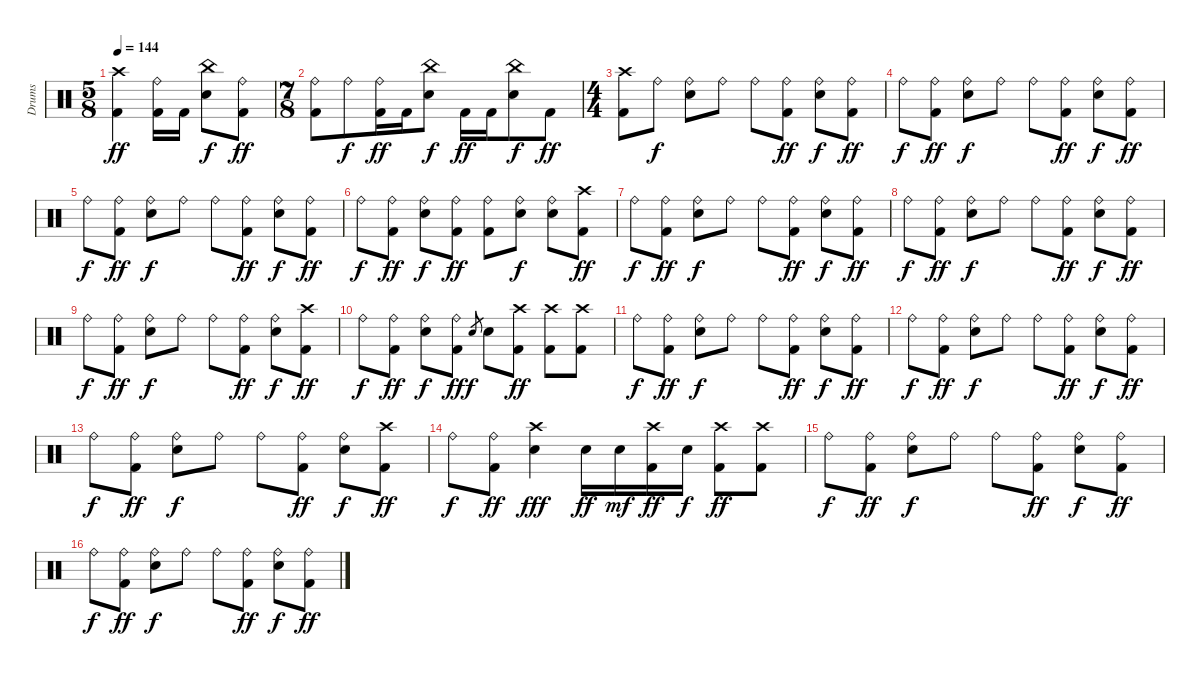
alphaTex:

\track ("Drums" "Drums") {instrument percussion}
\staff {score}
\articulation defaults
\ts (5 8)
\tempo 144
\clef neutral
\ks c
("Crash high (hit)" "Kick (hit) 2").4{dy ff} ("Ride (bell)" "Kick (hit) 2").16 "Kick (hit) 2".16 ("China (hit)" "Snare (hit) 2").8{dy f} ("Ride (bell)" "Kick (hit) 2").8{dy ff} |
\ts (7 8)
("Ride (bell)" "Kick (hit) 2").8 "Ride (bell)".8{dy f} ("Ride (bell)" "Kick (hit) 2").16{dy ff} "Kick (hit) 2".16 ("China (hit)" "Snare (hit) 2").8{dy f} "Kick (hit) 2".16{dy ff} "Kick (hit) 2".16 ("China (hit)" "Snare (hit) 2").8{dy f} "Kick (hit) 2".8{dy ff} |
\ts (4 4)
("Crash high (hit)" "Kick (hit) 2").8 "Ride (bell)".8{dy f} ("Ride (bell)" "Snare (hit) 2").8 "Ride (bell)".8 "Ride (bell)".8 ("Ride (bell)" "Kick (hit) 2").8{dy ff} ("Ride (bell)" "Snare (hit) 2").8{dy f} ("Ride (bell)" "Kick (hit) 2").8{dy ff} |
"Ride (bell)".8{dy f} ("Ride (bell)" "Kick (hit) 2").8{dy ff} ("Ride (bell)" "Snare (hit) 2").8{dy f} "Ride (bell)".8 "Ride (bell)".8 ("Ride (bell)" "Kick (hit) 2").8{dy ff} ("Ride (bell)" "Snare (hit) 2").8{dy f} ("Ride (bell)" "Kick (hit) 2").8{dy ff} |
"Ride (bell)".8{dy f} ("Ride (bell)" "Kick (hit) 2").8{dy ff} ("Ride (bell)" "Snare (hit) 2").8{dy f} "Ride (bell)".8 "Ride (bell)".8 ("Ride (bell)" "Kick (hit) 2").8{dy ff} ("Ride (bell)" "Snare (hit) 2").8{dy f} ("Ride (bell)" "Kick (hit) 2").8{dy ff} |
"Ride (bell)".8{dy f} ("Ride (bell)" "Kick (hit) 2").8{dy ff} ("Ride (bell)" "Snare (hit) 2").8{dy f} ("Ride (bell)" "Kick (hit) 2").8{dy ff} ("Ride (bell)" "Kick (hit) 2").8 ("Ride (bell)" "Snare (hit) 2").8{dy f} ("Ride (bell)" "Snare (hit) 2").8 ("Crash high (hit)" "Kick (hit) 2").8{dy ff} |
"Ride (bell)".8{dy f} ("Ride (bell)" "Kick (hit) 2").8{dy ff} ("Ride (bell)" "Snare (hit) 2").8{dy f} "Ride (bell)".8 "Ride (bell)".8 ("Ride (bell)" "Kick (hit) 2").8{dy ff} ("Ride (bell)" "Snare (hit) 2").8{dy f} ("Ride (bell)" "Kick (hit) 2").8{dy ff} |
"Ride (bell)".8{dy f} ("Ride (bell)" "Kick (hit) 2").8{dy ff} ("Ride (bell)" "Snare (hit) 2").8{dy f} "Ride (bell)".8 "Ride (bell)".8 ("Ride (bell)" "Kick (hit) 2").8{dy ff} ("Ride (bell)" "Snare (hit) 2").8{dy f} ("Ride (bell)" "Kick (hit) 2").8{dy ff} |
"Ride (bell)".8{dy f} ("Ride (bell)" "Kick (hit) 2").8{dy ff} ("Ride (bell)" "Snare (hit) 2").8{dy f} "Ride (bell)".8 "Ride (bell)".8 ("Ride (bell)" "Kick (hit) 2").8{dy ff} ("Ride (bell)" "Snare (hit) 2").8{dy f} ("Crash high (hit)" "Kick (hit) 2").8{dy ff} |
"Ride (bell)".8{dy f} ("Ride (bell)" "Kick (hit) 2").8{dy ff} ("Ride (bell)" "Snare (hit) 2").8{dy f} ("Ride (bell)" "Kick (hit) 2").8{dy ff} "Snare (hit) 2".8{gr dy f} "Snare (hit) 2".8 ("Crash high (hit)" "Kick (hit) 2").8{dy ff} ("Crash high (hit)" "Kick (hit) 2").8 ("Crash high (hit)" "Kick (hit) 2").8 |
"Ride (bell)".8{dy f} ("Ride (bell)" "Kick (hit) 2").8{dy ff} ("Ride (bell)" "Snare (hit) 2").8{dy f} "Ride (bell)".8 "Ride (bell)".8 ("Ride (bell)" "Kick (hit) 2").8{dy ff} ("Ride (bell)" "Snare (hit) 2").8{dy f} ("Ride (bell)" "Kick (hit) 2").8{dy ff} |
"Ride (bell)".8{dy f} ("Ride (bell)" "Kick (hit) 2").8{dy ff} ("Ride (bell)" "Snare (hit) 2").8{dy f} "Ride (bell)".8 "Ride (bell)".8 ("Ride (bell)" "Kick (hit) 2").8{dy ff} ("Ride (bell)" "Snare (hit) 2").8{dy f} ("Ride (bell)" "Kick (hit) 2").8{dy ff} |
"Ride (bell)".8{dy f} ("Ride (bell)" "Kick (hit) 2").8{dy ff} ("Ride (bell)" "Snare (hit) 2").8{dy f} "Ride (bell)".8 "Ride (bell)".8 ("Ride (bell)" "Kick (hit) 2").8{dy ff} ("Ride (bell)" "Snare (hit) 2").8{dy f} ("Crash high (hit)" "Kick (hit) 2").8{dy ff} |
"Ride (bell)".8{dy f} ("Ride (bell)" "Kick (hit) 2").8{dy ff} ("Crash high (hit)" "Snare (hit) 2").4{dy fff} "Snare (hit) 2".16{dy ff} "Snare (hit) 2".16{dy mf} ("Crash high (hit)" "Kick (hit) 2").16{dy ff} "Snare (hit) 2".16{dy f} ("Crash high (hit)" "Kick (hit) 2").8{dy ff} ("Crash high (hit)" "Kick (hit) 2").8 |
"Ride (bell)".8{dy f} ("Ride (bell)" "Kick (hit) 2").8{dy ff} ("Ride (bell)" "Snare (hit) 2").8{dy f} "Ride (bell)".8 "Ride (bell)".8 ("Ride (bell)" "Kick (hit) 2").8{dy ff} ("Ride (bell)" "Snare (hit) 2").8{dy f} ("Ride (bell)" "Kick (hit) 2").8{dy ff} |
"Ride (bell)".8{dy f} ("Ride (bell)" "Kick (hit) 2").8{dy ff} ("Ride (bell)" "Snare (hit) 2").8{dy f} "Ride (bell)".8 "Ride (bell)".8 ("Ride (bell)" "Kick (hit) 2").8{dy ff} ("Ride (bell)" "Snare (hit) 2").8{dy f} ("Ride (bell)" "Kick (hit) 2").8{dy ff}
